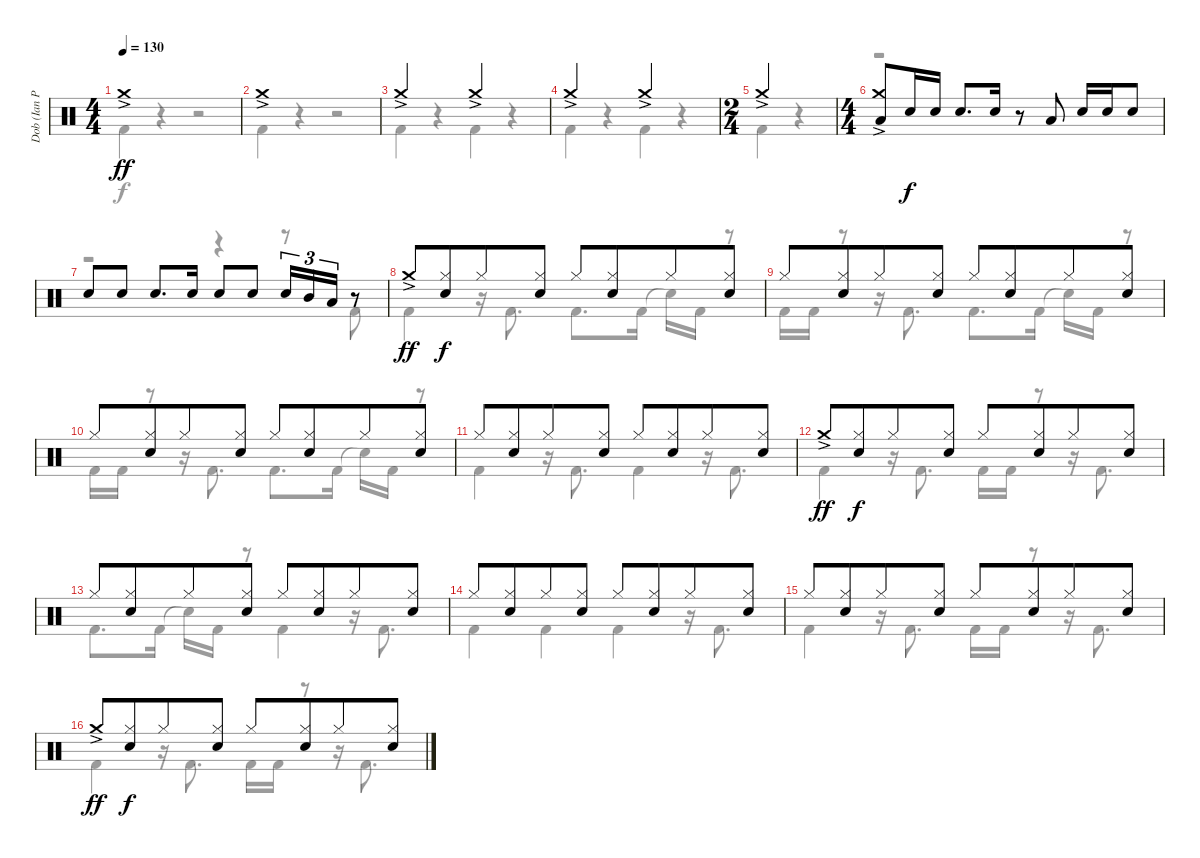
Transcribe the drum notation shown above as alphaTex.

\track ("Dob (Ian Paice)" "Dob (Ian P") {instrument percussion}
\staff {score}
\articulation defaults
\voice
\ts (4 4)
\tempo 130
\clef neutral
\ks c "Crash medium (hit)"{ac}.1{dy ff}
|
"Crash medium (hit)"{ac}.1 |
"Crash medium (hit)"{ac}.2 "Crash medium (hit)"{ac}.2 |
"Crash medium (hit)"{ac}.2 "Crash medium (hit)"{ac}.2 |
\ts (2 4)
"Crash medium (hit)"{ac}.2 |
\ts (4 4)
("Crash medium (hit)"{ac} "Low Tom (hit)").8 "Electric Snare (hit)".16{dy f} "Electric Snare (hit)".16 "Electric Snare (hit)".8{d} "Electric Snare (hit)".16 r.8 "Low Tom (hit)".8 "Electric Snare (hit)".16 "Electric Snare (hit)".16 "Electric Snare (hit)".8 |
"Electric Snare (hit)".8 "Electric Snare (hit)".8 "Electric Snare (hit)".8{d} "Electric Snare (hit)".16 "Electric Snare (hit)".8 "Electric Snare (hit)".8 "Electric Snare (hit)".16{tu (3 2)} "Mid Tom (hit)".16{tu (3 2)} "Low Tom (hit)".16{tu (3 2)} r.8 |
"Crash medium (hit)"{ac}.8{dy ff} ("Hi-Hat (closed)" "Electric Snare (hit)").8{dy f beam merge} "Hi-Hat (closed)".8 ("Hi-Hat (closed)" "Electric Snare (hit)").8 "Hi-Hat (closed)".8 ("Hi-Hat (closed)" "Electric Snare (hit)").8{beam merge} "Hi-Hat (closed)".8 ("Hi-Hat (closed)" "Electric Snare (hit)").8 |
"Hi-Hat (closed)".8 ("Hi-Hat (closed)" "Electric Snare (hit)").8{beam merge} "Hi-Hat (closed)".8 ("Hi-Hat (closed)" "Electric Snare (hit)").8 "Hi-Hat (closed)".8 ("Hi-Hat (closed)" "Electric Snare (hit)").8{beam merge} "Hi-Hat (closed)".8 ("Hi-Hat (closed)" "Electric Snare (hit)").8 |
"Hi-Hat (closed)".8 ("Hi-Hat (closed)" "Electric Snare (hit)").8{beam merge} "Hi-Hat (closed)".8 ("Hi-Hat (closed)" "Electric Snare (hit)").8 "Hi-Hat (closed)".8 ("Hi-Hat (closed)" "Electric Snare (hit)").8{beam merge} "Hi-Hat (closed)".8 ("Hi-Hat (closed)" "Electric Snare (hit)").8 |
"Hi-Hat (closed)".8 ("Hi-Hat (closed)" "Electric Snare (hit)").8{beam merge} "Hi-Hat (closed)".8 ("Hi-Hat (closed)" "Electric Snare (hit)").8 "Hi-Hat (closed)".8 ("Hi-Hat (closed)" "Electric Snare (hit)").8{beam merge} "Hi-Hat (closed)".8 ("Hi-Hat (closed)" "Electric Snare (hit)").8 |
"Crash medium (hit)"{ac}.8{dy ff} ("Hi-Hat (closed)" "Electric Snare (hit)").8{dy f beam merge} "Hi-Hat (closed)".8 ("Hi-Hat (closed)" "Electric Snare (hit)").8 "Hi-Hat (closed)".8 ("Hi-Hat (closed)" "Electric Snare (hit)").8{beam merge} "Hi-Hat (closed)".8 ("Hi-Hat (closed)" "Electric Snare (hit)").8 |
"Hi-Hat (closed)".8 ("Hi-Hat (closed)" "Electric Snare (hit)").8{beam merge} "Hi-Hat (closed)".8 ("Hi-Hat (closed)" "Electric Snare (hit)").8 "Hi-Hat (closed)".8 ("Hi-Hat (closed)" "Electric Snare (hit)").8{beam merge} "Hi-Hat (closed)".8 ("Hi-Hat (closed)" "Electric Snare (hit)").8 |
"Hi-Hat (closed)".8 ("Hi-Hat (closed)" "Electric Snare (hit)").8{beam merge} "Hi-Hat (closed)".8 ("Hi-Hat (closed)" "Electric Snare (hit)").8 "Hi-Hat (closed)".8 ("Hi-Hat (closed)" "Electric Snare (hit)").8{beam merge} "Hi-Hat (closed)".8 ("Hi-Hat (closed)" "Electric Snare (hit)").8 |
"Hi-Hat (closed)".8 ("Hi-Hat (closed)" "Electric Snare (hit)").8{beam merge} "Hi-Hat (closed)".8 ("Hi-Hat (closed)" "Electric Snare (hit)").8 "Hi-Hat (closed)".8 ("Hi-Hat (closed)" "Electric Snare (hit)").8{beam merge} "Hi-Hat (closed)".8 ("Hi-Hat (closed)" "Electric Snare (hit)").8 |
"Crash medium (hit)"{ac}.8{dy ff} ("Hi-Hat (closed)" "Electric Snare (hit)").8{dy f beam merge} "Hi-Hat (closed)".8 ("Hi-Hat (closed)" "Electric Snare (hit)").8 "Hi-Hat (closed)".8 ("Hi-Hat (closed)" "Electric Snare (hit)").8{beam merge} "Hi-Hat (closed)".8 ("Hi-Hat (closed)" "Electric Snare (hit)").8
\voice
\clef neutral
\ottava regular
\simile none
\ks c "Kick (hit) 2".4{dy f}
r.4 r.2 |
"Kick (hit) 2".4 r.4 r.2 |
"Kick (hit) 2".4 r.4 "Kick (hit) 2".4 r.4 |
"Kick (hit) 2".4 r.4 "Kick (hit) 2".4 r.4 |
"Kick (hit) 2".4 r.4 |
r.1 |
r.2 r.4 r.8 "Kick (hit) 2".8 |
"Kick (hit) 2".4 r.16 "Kick (hit) 2".8{d} "Kick (hit) 2".8{d} "Kick (hit) 2".16 "Snare (hit)"{t}.16 "Kick (hit) 2".16 r.8 |
"Kick (hit) 2".16 "Kick (hit) 2".16 r.8 r.16 "Kick (hit) 2".8{d} "Kick (hit) 2".8{d} "Kick (hit) 2".16 "Snare (hit)"{t}.16 "Kick (hit) 2".16 r.8 |
"Kick (hit) 2".16 "Kick (hit) 2".16 r.8 r.16 "Kick (hit) 2".8{d} "Kick (hit) 2".8{d} "Kick (hit) 2".16 "Snare (hit)"{t}.16 "Kick (hit) 2".16 r.8 |
"Kick (hit) 2".4 r.16 "Kick (hit) 2".8{d} "Kick (hit) 2".4 r.16 "Kick (hit) 2".8{d} |
"Kick (hit) 2".4 r.16 "Kick (hit) 2".8{d} "Kick (hit) 2".16 "Kick (hit) 2".16 r.8 r.16 "Kick (hit) 2".8{d} |
"Kick (hit) 2".8{d} "Kick (hit) 2".16 "Snare (hit)"{t}.16 "Kick (hit) 2".16 r.8 "Kick (hit) 2".4 r.16 "Kick (hit) 2".8{d} |
"Kick (hit) 2".4 "Kick (hit) 2".4 "Kick (hit) 2".4 r.16 "Kick (hit) 2".8{d} |
"Kick (hit) 2".4 r.16 "Kick (hit) 2".8{d} "Kick (hit) 2".16 "Kick (hit) 2".16 r.8 r.16 "Kick (hit) 2".8{d} |
"Kick (hit) 2".4 r.16 "Kick (hit) 2".8{d} "Kick (hit) 2".16 "Kick (hit) 2".16 r.8 r.16 "Kick (hit) 2".8{d}
